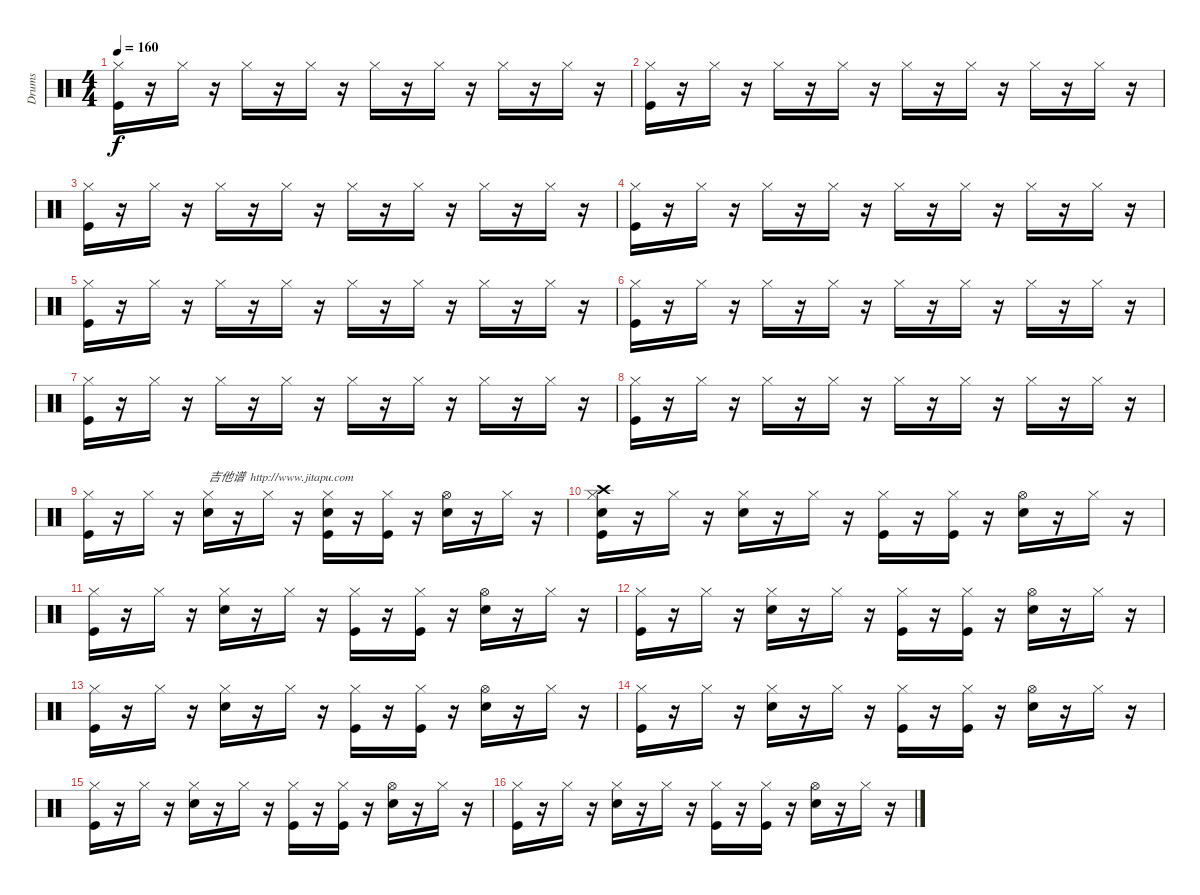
\track ("Drums" "Drums") {instrument percussion}
\staff {score}
\articulation defaults
\ts (4 4)
\tempo 160
\clef neutral
\ks c
("Hi-Hat (closed)" "Kick (hit)").16{dy f} r.16 "Hi-Hat (closed)".16 r.16 "Hi-Hat (closed)".16 r.16 "Hi-Hat (closed)".16 r.16 "Hi-Hat (closed)".16 r.16 "Hi-Hat (closed)".16 r.16 "Hi-Hat (closed)".16 r.16 "Hi-Hat (closed)".16 r.16 |
("Hi-Hat (closed)" "Kick (hit)").16 r.16 "Hi-Hat (closed)".16 r.16 "Hi-Hat (closed)".16 r.16 "Hi-Hat (closed)".16 r.16 "Hi-Hat (closed)".16 r.16 "Hi-Hat (closed)".16 r.16 "Hi-Hat (closed)".16 r.16 "Hi-Hat (closed)".16 r.16 |
("Hi-Hat (closed)" "Kick (hit)").16 r.16 "Hi-Hat (closed)".16 r.16 "Hi-Hat (closed)".16 r.16 "Hi-Hat (closed)".16 r.16 "Hi-Hat (closed)".16 r.16 "Hi-Hat (closed)".16 r.16 "Hi-Hat (closed)".16 r.16 "Hi-Hat (closed)".16 r.16 |
("Hi-Hat (closed)" "Kick (hit)").16 r.16 "Hi-Hat (closed)".16 r.16 "Hi-Hat (closed)".16 r.16 "Hi-Hat (closed)".16 r.16 "Hi-Hat (closed)".16 r.16 "Hi-Hat (closed)".16 r.16 "Hi-Hat (closed)".16 r.16 "Hi-Hat (closed)".16 r.16 |
("Hi-Hat (closed)" "Kick (hit)").16 r.16 "Hi-Hat (closed)".16 r.16 "Hi-Hat (closed)".16 r.16 "Hi-Hat (closed)".16 r.16 "Hi-Hat (closed)".16 r.16 "Hi-Hat (closed)".16 r.16 "Hi-Hat (closed)".16 r.16 "Hi-Hat (closed)".16 r.16 |
("Hi-Hat (closed)" "Kick (hit)").16 r.16 "Hi-Hat (closed)".16 r.16 "Hi-Hat (closed)".16 r.16 "Hi-Hat (closed)".16 r.16 "Hi-Hat (closed)".16 r.16 "Hi-Hat (closed)".16 r.16 "Hi-Hat (closed)".16 r.16 "Hi-Hat (closed)".16 r.16 |
("Hi-Hat (closed)" "Kick (hit)").16 r.16 "Hi-Hat (closed)".16 r.16 "Hi-Hat (closed)".16 r.16 "Hi-Hat (closed)".16 r.16 "Hi-Hat (closed)".16 r.16 "Hi-Hat (closed)".16 r.16 "Hi-Hat (closed)".16 r.16 "Hi-Hat (closed)".16 r.16 |
("Hi-Hat (closed)" "Kick (hit)").16 r.16 "Hi-Hat (closed)".16 r.16 "Hi-Hat (closed)".16 r.16 "Hi-Hat (closed)".16 r.16 "Hi-Hat (closed)".16 r.16 "Hi-Hat (closed)".16 r.16 "Hi-Hat (closed)".16 r.16 "Hi-Hat (closed)".16 r.16 |
("Hi-Hat (closed)" "Kick (hit)").16 r.16 "Hi-Hat (closed)".16 r.16 ("Hi-Hat (closed)" "Snare (hit) 2").16{txt "吉他谱  http://www.jitapu.com"} r.16 "Hi-Hat (closed)".16 r.16 ("Snare (hit) 2" "Hi-Hat (closed)" "Kick (hit)").16 r.16 ("Kick (hit)" "Hi-Hat (closed)").16 r.16 ("Hi-Hat (open)" "Snare (hit) 2").16 r.16 "Hi-Hat (closed)".16 r.16 |
("Crash high (hit)" "Snare (hit) 2" "Hi-Hat (closed)" "Kick (hit)").16 r.16 "Hi-Hat (closed)".16 r.16 ("Hi-Hat (closed)" "Snare (hit) 2").16 r.16 "Hi-Hat (closed)".16 r.16 ("Hi-Hat (closed)" "Kick (hit)").16 r.16 ("Kick (hit)" "Hi-Hat (closed)").16 r.16 ("Hi-Hat (open)" "Snare (hit) 2").16 r.16 "Hi-Hat (closed)".16 r.16 |
("Hi-Hat (closed)" "Kick (hit)").16 r.16 "Hi-Hat (closed)".16 r.16 ("Hi-Hat (closed)" "Snare (hit) 2").16 r.16 "Hi-Hat (closed)".16 r.16 ("Hi-Hat (closed)" "Kick (hit)").16 r.16 ("Kick (hit)" "Hi-Hat (closed)").16 r.16 ("Hi-Hat (open)" "Snare (hit) 2").16 r.16 "Hi-Hat (closed)".16 r.16 |
("Hi-Hat (closed)" "Kick (hit)").16 r.16 "Hi-Hat (closed)".16 r.16 ("Hi-Hat (closed)" "Snare (hit) 2").16 r.16 "Hi-Hat (closed)".16 r.16 ("Hi-Hat (closed)" "Kick (hit)").16 r.16 ("Kick (hit)" "Hi-Hat (closed)").16 r.16 ("Hi-Hat (open)" "Snare (hit) 2").16 r.16 "Hi-Hat (closed)".16 r.16 |
("Hi-Hat (closed)" "Kick (hit)").16 r.16 "Hi-Hat (closed)".16 r.16 ("Hi-Hat (closed)" "Snare (hit) 2").16 r.16 "Hi-Hat (closed)".16 r.16 ("Hi-Hat (closed)" "Kick (hit)").16 r.16 ("Kick (hit)" "Hi-Hat (closed)").16 r.16 ("Hi-Hat (open)" "Snare (hit) 2").16 r.16 "Hi-Hat (closed)".16 r.16 |
("Hi-Hat (closed)" "Kick (hit)").16 r.16 "Hi-Hat (closed)".16 r.16 ("Hi-Hat (closed)" "Snare (hit) 2").16 r.16 "Hi-Hat (closed)".16 r.16 ("Hi-Hat (closed)" "Kick (hit)").16 r.16 ("Kick (hit)" "Hi-Hat (closed)").16 r.16 ("Hi-Hat (open)" "Snare (hit) 2").16 r.16 "Hi-Hat (closed)".16 r.16 |
("Hi-Hat (closed)" "Kick (hit)").16 r.16 "Hi-Hat (closed)".16 r.16 ("Hi-Hat (closed)" "Snare (hit) 2").16 r.16 "Hi-Hat (closed)".16 r.16 ("Hi-Hat (closed)" "Kick (hit)").16 r.16 ("Kick (hit)" "Hi-Hat (closed)").16 r.16 ("Hi-Hat (open)" "Snare (hit) 2").16 r.16 "Hi-Hat (closed)".16 r.16 |
("Hi-Hat (closed)" "Kick (hit)").16 r.16 "Hi-Hat (closed)".16 r.16 ("Hi-Hat (closed)" "Snare (hit) 2").16 r.16 "Hi-Hat (closed)".16 r.16 ("Hi-Hat (closed)" "Kick (hit)").16 r.16 ("Kick (hit)" "Hi-Hat (closed)").16 r.16 ("Hi-Hat (open)" "Snare (hit) 2").16 r.16 "Hi-Hat (closed)".16 r.16
